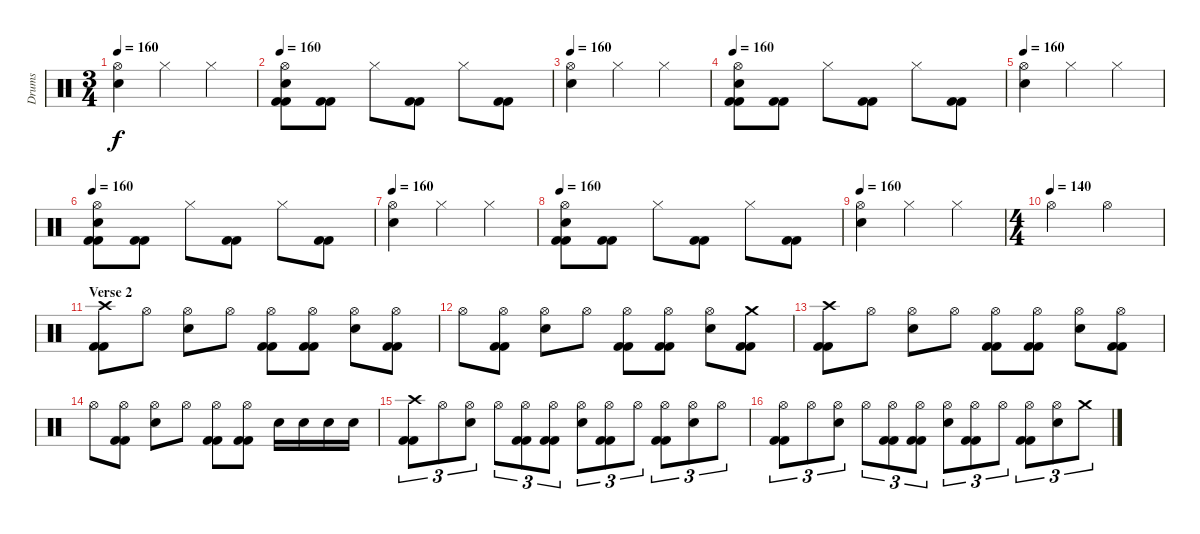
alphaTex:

\track ("Drums" "Drums") {instrument percussion}
\staff {score}
\articulation defaults
\ts (3 4)
\tempo 160
\clef neutral
\ks c
("Hi-Hat (open)" "Electric Snare (hit)").4{dy f} "Hi-Hat (closed)".4 "Hi-Hat (closed)".4 |
\tempo 160
("Hi-Hat (open)" "Kick (hit) 2" "Electric Snare (hit)" "Kick (hit) 2").8 ("Kick (hit) 2" "Kick (hit) 2").8 "Hi-Hat (closed)".8 ("Kick (hit) 2" "Kick (hit) 2").8 "Hi-Hat (closed)".8 ("Kick (hit) 2" "Kick (hit) 2").8 |
\tempo 160
("Hi-Hat (open)" "Electric Snare (hit)").4 "Hi-Hat (closed)".4 "Hi-Hat (closed)".4 |
\tempo 160
("Hi-Hat (open)" "Kick (hit) 2" "Electric Snare (hit)" "Kick (hit) 2").8 ("Kick (hit) 2" "Kick (hit) 2").8 "Hi-Hat (closed)".8 ("Kick (hit) 2" "Kick (hit) 2").8 "Hi-Hat (closed)".8 ("Kick (hit) 2" "Kick (hit) 2").8 |
\tempo 160
("Hi-Hat (open)" "Electric Snare (hit)").4 "Hi-Hat (closed)".4 "Hi-Hat (closed)".4 |
\tempo 160
("Hi-Hat (open)" "Kick (hit) 2" "Electric Snare (hit)" "Kick (hit) 2").8 ("Kick (hit) 2" "Kick (hit) 2").8 "Hi-Hat (closed)".8 ("Kick (hit) 2" "Kick (hit) 2").8 "Hi-Hat (closed)".8 ("Kick (hit) 2" "Kick (hit) 2").8 |
\tempo 160
("Hi-Hat (open)" "Electric Snare (hit)").4 "Hi-Hat (closed)".4 "Hi-Hat (closed)".4 |
\tempo 160
("Hi-Hat (open)" "Kick (hit) 2" "Electric Snare (hit)" "Kick (hit) 2").8 ("Kick (hit) 2" "Kick (hit) 2").8 "Hi-Hat (closed)".8 ("Kick (hit) 2" "Kick (hit) 2").8 "Hi-Hat (closed)".8 ("Kick (hit) 2" "Kick (hit) 2").8 |
\tempo 160
("Hi-Hat (open)" "Electric Snare (hit)").4 "Hi-Hat (closed)".4 "Hi-Hat (closed)".4 |
\ts (4 4)
\tempo (140)
"Hi-Hat (open)".2 "Hi-Hat (open)".2 |
\section ("" "Verse 2")
("Crash high (hit)" "Kick (hit) 2" "Kick (hit) 2").8 "Hi-Hat (open)".8 ("Hi-Hat (open)" "Electric Snare (hit)").8 "Hi-Hat (open)".8 ("Hi-Hat (open)" "Kick (hit) 2" "Kick (hit) 2").8 ("Hi-Hat (open)" "Kick (hit) 2" "Kick (hit) 2").8 ("Hi-Hat (open)" "Electric Snare (hit)").8 ("Hi-Hat (open)" "Kick (hit) 2" "Kick (hit) 2").8 |
"Hi-Hat (open)".8 ("Hi-Hat (open)" "Kick (hit) 2" "Kick (hit) 2").8 ("Hi-Hat (open)" "Electric Snare (hit)").8 "Hi-Hat (open)".8 ("Hi-Hat (open)" "Kick (hit) 2" "Kick (hit) 2").8 ("Hi-Hat (open)" "Kick (hit) 2" "Kick (hit) 2").8 ("Hi-Hat (open)" "Electric Snare (hit)").8 ("Crash medium (hit)" "Kick (hit) 2" "Kick (hit) 2").8 |
("Crash high (hit)" "Kick (hit) 2" "Kick (hit) 2").8 "Hi-Hat (open)".8 ("Hi-Hat (open)" "Electric Snare (hit)").8 "Hi-Hat (open)".8 ("Hi-Hat (open)" "Kick (hit) 2" "Kick (hit) 2").8 ("Hi-Hat (open)" "Kick (hit) 2" "Kick (hit) 2").8 ("Hi-Hat (open)" "Electric Snare (hit)").8 ("Hi-Hat (open)" "Kick (hit) 2" "Kick (hit) 2").8 |
"Hi-Hat (open)".8 ("Hi-Hat (open)" "Kick (hit) 2" "Kick (hit) 2").8 ("Hi-Hat (open)" "Electric Snare (hit)").8 "Hi-Hat (open)".8 ("Hi-Hat (open)" "Kick (hit) 2" "Kick (hit) 2").8 ("Hi-Hat (open)" "Kick (hit) 2" "Kick (hit) 2").8 "Electric Snare (hit)".16 "Electric Snare (hit)".16 "Electric Snare (hit)".16 "Electric Snare (hit)".16 |
("Crash high (hit)" "Kick (hit) 2" "Kick (hit) 2").8{tu (3 2)} "Hi-Hat (open)".8{tu (3 2)} ("Hi-Hat (open)" "Electric Snare (hit)").8{tu (3 2)} "Hi-Hat (open)".8{tu (3 2)} ("Hi-Hat (open)" "Kick (hit) 2" "Kick (hit) 2").8{tu (3 2)} ("Hi-Hat (open)" "Kick (hit) 2" "Kick (hit) 2").8{tu (3 2)} ("Hi-Hat (open)" "Electric Snare (hit)").8{tu (3 2)} ("Hi-Hat (open)" "Kick (hit) 2" "Kick (hit) 2").8{tu (3 2)} "Hi-Hat (open)".8{tu (3 2)} ("Hi-Hat (open)" "Kick (hit) 2" "Kick (hit) 2").8{tu (3 2)} ("Hi-Hat (open)" "Electric Snare (hit)").8{tu (3 2)} "Hi-Hat (open)".8{tu (3 2)} |
("Hi-Hat (open)" "Kick (hit) 2" "Kick (hit) 2").8{tu (3 2)} "Hi-Hat (open)".8{tu (3 2)} ("Hi-Hat (open)" "Electric Snare (hit)").8{tu (3 2)} "Hi-Hat (open)".8{tu (3 2)} ("Hi-Hat (open)" "Kick (hit) 2" "Kick (hit) 2").8{tu (3 2)} ("Hi-Hat (open)" "Kick (hit) 2" "Kick (hit) 2").8{tu (3 2)} ("Hi-Hat (open)" "Electric Snare (hit)").8{tu (3 2)} ("Hi-Hat (open)" "Kick (hit) 2" "Kick (hit) 2").8{tu (3 2)} "Hi-Hat (open)".8{tu (3 2)} ("Hi-Hat (open)" "Kick (hit) 2" "Kick (hit) 2").8{tu (3 2)} ("Hi-Hat (open)" "Electric Snare (hit)").8{tu (3 2)} "Crash medium (hit)".8{tu (3 2)}
